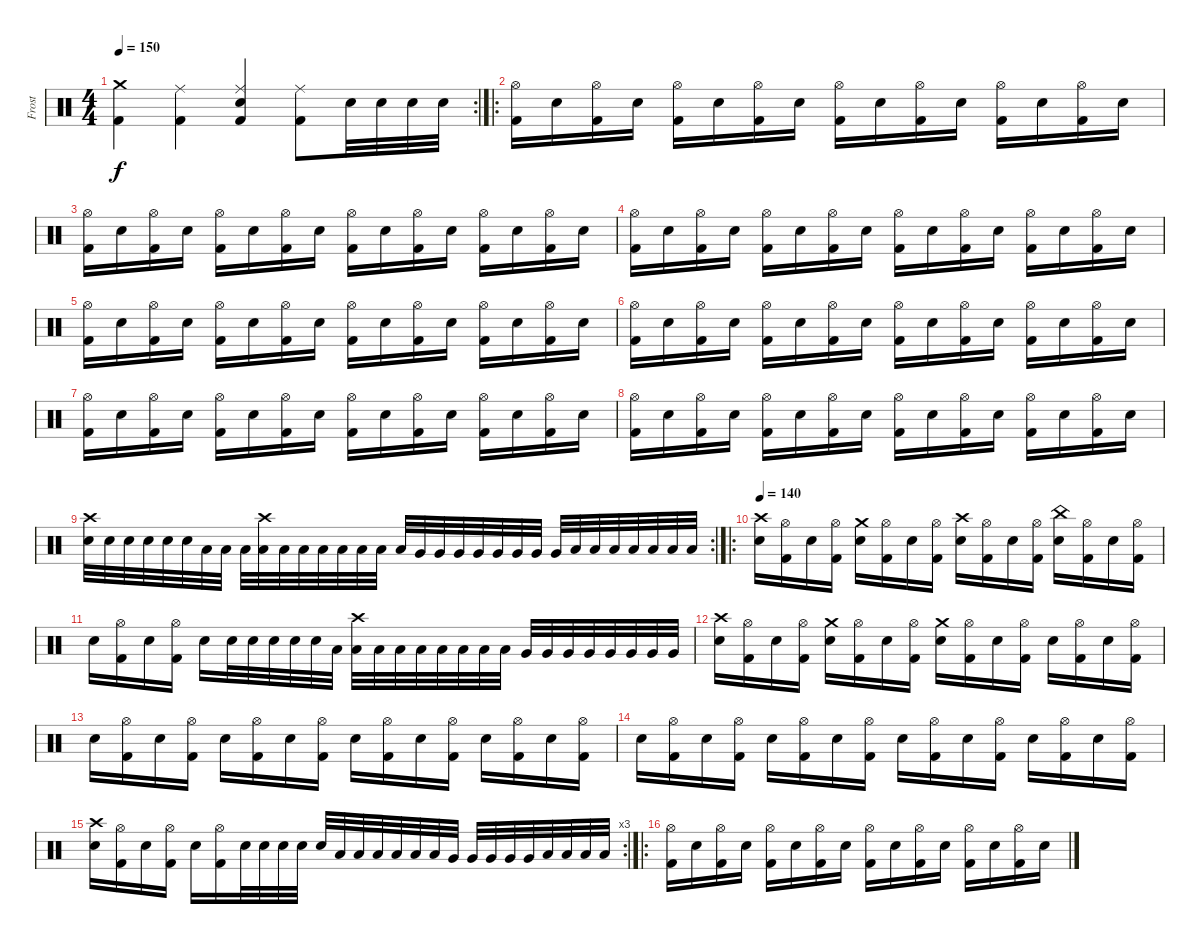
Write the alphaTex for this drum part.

\track ("Frost" "Frost") {instrument percussion}
\staff {score}
\articulation defaults
\rc 2
\ts (4 4)
\tempo 150
\clef neutral
\ks c
("Crash medium (hit)" "Kick (hit) 2").4{dy f} ("Ride (middle)" "Kick (hit) 2").4 ("Ride (middle)" "Snare (hit) 2" "Kick (hit) 2").4 ("Ride (middle)" "Kick (hit) 2").8 "Snare (hit) 2".32 "Snare (hit) 2".32 "Snare (hit) 2".32 "Snare (hit) 2".32 |
\ro
("Hi-Hat (open)" "Kick (hit) 2").16 "Snare (hit) 2".16 ("Hi-Hat (open)" "Kick (hit) 2").16 "Snare (hit) 2".16 ("Hi-Hat (open)" "Kick (hit) 2").16 "Snare (hit) 2".16 ("Hi-Hat (open)" "Kick (hit) 2").16 "Snare (hit) 2".16 ("Hi-Hat (open)" "Kick (hit) 2").16 "Snare (hit) 2".16 ("Hi-Hat (open)" "Kick (hit) 2").16 "Snare (hit) 2".16 ("Hi-Hat (open)" "Kick (hit) 2").16 "Snare (hit) 2".16 ("Hi-Hat (open)" "Kick (hit) 2").16 "Snare (hit) 2".16 |
("Hi-Hat (open)" "Kick (hit) 2").16 "Snare (hit) 2".16 ("Hi-Hat (open)" "Kick (hit) 2").16 "Snare (hit) 2".16 ("Hi-Hat (open)" "Kick (hit) 2").16 "Snare (hit) 2".16 ("Hi-Hat (open)" "Kick (hit) 2").16 "Snare (hit) 2".16 ("Hi-Hat (open)" "Kick (hit) 2").16 "Snare (hit) 2".16 ("Hi-Hat (open)" "Kick (hit) 2").16 "Snare (hit) 2".16 ("Hi-Hat (open)" "Kick (hit) 2").16 "Snare (hit) 2".16 ("Hi-Hat (open)" "Kick (hit) 2").16 "Snare (hit) 2".16 |
("Hi-Hat (open)" "Kick (hit) 2").16 "Snare (hit) 2".16 ("Hi-Hat (open)" "Kick (hit) 2").16 "Snare (hit) 2".16 ("Hi-Hat (open)" "Kick (hit) 2").16 "Snare (hit) 2".16 ("Hi-Hat (open)" "Kick (hit) 2").16 "Snare (hit) 2".16 ("Hi-Hat (open)" "Kick (hit) 2").16 "Snare (hit) 2".16 ("Hi-Hat (open)" "Kick (hit) 2").16 "Snare (hit) 2".16 ("Hi-Hat (open)" "Kick (hit) 2").16 "Snare (hit) 2".16 ("Hi-Hat (open)" "Kick (hit) 2").16 "Snare (hit) 2".16 |
("Hi-Hat (open)" "Kick (hit) 2").16 "Snare (hit) 2".16 ("Hi-Hat (open)" "Kick (hit) 2").16 "Snare (hit) 2".16 ("Hi-Hat (open)" "Kick (hit) 2").16 "Snare (hit) 2".16 ("Hi-Hat (open)" "Kick (hit) 2").16 "Snare (hit) 2".16 ("Hi-Hat (open)" "Kick (hit) 2").16 "Snare (hit) 2".16 ("Hi-Hat (open)" "Kick (hit) 2").16 "Snare (hit) 2".16 ("Hi-Hat (open)" "Kick (hit) 2").16 "Snare (hit) 2".16 ("Hi-Hat (open)" "Kick (hit) 2").16 "Snare (hit) 2".16 |
("Hi-Hat (open)" "Kick (hit) 2").16 "Snare (hit) 2".16 ("Hi-Hat (open)" "Kick (hit) 2").16 "Snare (hit) 2".16 ("Hi-Hat (open)" "Kick (hit) 2").16 "Snare (hit) 2".16 ("Hi-Hat (open)" "Kick (hit) 2").16 "Snare (hit) 2".16 ("Hi-Hat (open)" "Kick (hit) 2").16 "Snare (hit) 2".16 ("Hi-Hat (open)" "Kick (hit) 2").16 "Snare (hit) 2".16 ("Hi-Hat (open)" "Kick (hit) 2").16 "Snare (hit) 2".16 ("Hi-Hat (open)" "Kick (hit) 2").16 "Snare (hit) 2".16 |
("Hi-Hat (open)" "Kick (hit) 2").16 "Snare (hit) 2".16 ("Hi-Hat (open)" "Kick (hit) 2").16 "Snare (hit) 2".16 ("Hi-Hat (open)" "Kick (hit) 2").16 "Snare (hit) 2".16 ("Hi-Hat (open)" "Kick (hit) 2").16 "Snare (hit) 2".16 ("Hi-Hat (open)" "Kick (hit) 2").16 "Snare (hit) 2".16 ("Hi-Hat (open)" "Kick (hit) 2").16 "Snare (hit) 2".16 ("Hi-Hat (open)" "Kick (hit) 2").16 "Snare (hit) 2".16 ("Hi-Hat (open)" "Kick (hit) 2").16 "Snare (hit) 2".16 |
("Hi-Hat (open)" "Kick (hit) 2").16 "Snare (hit) 2".16 ("Hi-Hat (open)" "Kick (hit) 2").16 "Snare (hit) 2".16 ("Hi-Hat (open)" "Kick (hit) 2").16 "Snare (hit) 2".16 ("Hi-Hat (open)" "Kick (hit) 2").16 "Snare (hit) 2".16 ("Hi-Hat (open)" "Kick (hit) 2").16 "Snare (hit) 2".16 ("Hi-Hat (open)" "Kick (hit) 2").16 "Snare (hit) 2".16 ("Hi-Hat (open)" "Kick (hit) 2").16 "Snare (hit) 2".16 ("Hi-Hat (open)" "Kick (hit) 2").16 "Snare (hit) 2".16 |
\rc 2
("Crash high (hit)" "Snare (hit) 2").32 "Snare (hit) 2".32 "Snare (hit) 2".32 "Snare (hit) 2".32 "Snare (hit) 2".32 "Snare (hit) 2".32 "Low Tom (hit)".32 "Low Tom (hit)".32 "Low Tom (hit)".32 ("Crash high (hit)" "Low Tom (hit)").32 "Low Tom (hit)".32 "Low Tom (hit)".32 "Low Tom (hit)".32 "Low Tom (hit)".32 "Low Tom (hit)".32 "Low Tom (hit)".32 "Low Tom (hit)".32 "Very Low Tom (hit)".32 "Very Low Tom (hit)".32 "Very Low Tom (hit)".32 "Very Low Tom (hit)".32 "Very Low Tom (hit)".32 "Very Low Tom (hit)".32 "Very Low Tom (hit)".32 "Very Low Tom (hit)".32 "Low Floor Tom (hit)".32 "Low Floor Tom (hit)".32 "Low Floor Tom (hit)".32 "Low Floor Tom (hit)".32 "Low Floor Tom (hit)".32 "Low Floor Tom (hit)".32 "Low Floor Tom (hit)".32 |
\ro
\tempo 140
("Crash high (hit)" "Snare (hit) 2").16 ("Hi-Hat (open)" "Kick (hit) 2").16 "Snare (hit) 2".16 ("Hi-Hat (open)" "Kick (hit) 2").16 ("Crash medium (hit)" "Snare (hit) 2").16 ("Hi-Hat (open)" "Kick (hit) 2").16 "Snare (hit) 2".16 ("Hi-Hat (open)" "Kick (hit) 2").16 ("Crash high (hit)" "Snare (hit) 2").16 ("Hi-Hat (open)" "Kick (hit) 2").16 "Snare (hit) 2".16 ("Hi-Hat (open)" "Kick (hit) 2").16 ("China (hit)" "Snare (hit) 2").16 ("Hi-Hat (open)" "Kick (hit) 2").16 "Snare (hit) 2".16 ("Hi-Hat (open)" "Kick (hit) 2").16 |
"Snare (hit) 2".16 ("Hi-Hat (open)" "Kick (hit) 2").16 "Snare (hit) 2".16 ("Hi-Hat (open)" "Kick (hit) 2").16 "Snare (hit) 2".16 "Snare (hit) 2".32 "Snare (hit) 2".32 "Snare (hit) 2".32 "Snare (hit) 2".32 "Snare (hit) 2".32 "Low Tom (hit)".32 ("Crash high (hit)" "Low Tom (hit)").32 "Low Tom (hit)".32 "Low Tom (hit)".32 "Low Tom (hit)".32 "Low Tom (hit)".32 "Low Tom (hit)".32 "Low Tom (hit)".32 "Low Tom (hit)".32 "Very Low Tom (hit)".32 "Very Low Tom (hit)".32 "Very Low Tom (hit)".32 "Very Low Tom (hit)".32 "Very Low Tom (hit)".32 "Very Low Tom (hit)".32 "Very Low Tom (hit)".32 "Very Low Tom (hit)".32 |
("Crash high (hit)" "Snare (hit) 2").16 ("Hi-Hat (open)" "Kick (hit) 2").16 "Snare (hit) 2".16 ("Hi-Hat (open)" "Kick (hit) 2").16 ("Crash medium (hit)" "Snare (hit) 2").16 ("Hi-Hat (open)" "Kick (hit) 2").16 "Snare (hit) 2".16 ("Hi-Hat (open)" "Kick (hit) 2").16 ("Crash medium (hit)" "Snare (hit) 2").16 ("Hi-Hat (open)" "Kick (hit) 2").16 "Snare (hit) 2".16 ("Hi-Hat (open)" "Kick (hit) 2").16 "Snare (hit) 2".16 ("Hi-Hat (open)" "Kick (hit) 2").16 "Snare (hit) 2".16 ("Hi-Hat (open)" "Kick (hit) 2").16 |
"Snare (hit) 2".16 ("Hi-Hat (open)" "Kick (hit) 2").16 "Snare (hit) 2".16 ("Hi-Hat (open)" "Kick (hit) 2").16 "Snare (hit) 2".16 ("Hi-Hat (open)" "Kick (hit) 2").16 "Snare (hit) 2".16 ("Hi-Hat (open)" "Kick (hit) 2").16 "Snare (hit) 2".16 ("Hi-Hat (open)" "Kick (hit) 2").16 "Snare (hit) 2".16 ("Hi-Hat (open)" "Kick (hit) 2").16 "Snare (hit) 2".16 ("Hi-Hat (open)" "Kick (hit) 2").16 "Snare (hit) 2".16 ("Hi-Hat (open)" "Kick (hit) 2").16 |
"Snare (hit) 2".16 ("Hi-Hat (open)" "Kick (hit) 2").16 "Snare (hit) 2".16 ("Hi-Hat (open)" "Kick (hit) 2").16 "Snare (hit) 2".16 ("Hi-Hat (open)" "Kick (hit) 2").16 "Snare (hit) 2".16 ("Hi-Hat (open)" "Kick (hit) 2").16 "Snare (hit) 2".16 ("Hi-Hat (open)" "Kick (hit) 2").16 "Snare (hit) 2".16 ("Hi-Hat (open)" "Kick (hit) 2").16 "Snare (hit) 2".16 ("Hi-Hat (open)" "Kick (hit) 2").16 "Snare (hit) 2".16 ("Hi-Hat (open)" "Kick (hit) 2").16 |
\rc 3
("Crash high (hit)" "Snare (hit) 2").16 ("Hi-Hat (open)" "Kick (hit) 2").16 "Snare (hit) 2".16 ("Hi-Hat (open)" "Kick (hit) 2").16 "Snare (hit) 2".16 ("Hi-Hat (open)" "Kick (hit) 2").16 "Snare (hit) 2".32 "Snare (hit) 2".32 "Snare (hit) 2".32 "Snare (hit) 2".32 "Snare (hit) 2".32 "Low Tom (hit)".32 "Low Tom (hit)".32 "Low Tom (hit)".32 "Low Tom (hit)".32 "Low Tom (hit)".32 "Low Tom (hit)".32 "Very Low Tom (hit)".32 "Very Low Tom (hit)".32 "Very Low Tom (hit)".32 "Very Low Tom (hit)".32 "Very Low Tom (hit)".32 "Low Floor Tom (hit)".32 "Low Floor Tom (hit)".32 "Low Floor Tom (hit)".32 "Low Floor Tom (hit)".32 |
\ro
("Hi-Hat (open)" "Kick (hit) 2").16 "Snare (hit) 2".16 ("Hi-Hat (open)" "Kick (hit) 2").16 "Snare (hit) 2".16 ("Hi-Hat (open)" "Kick (hit) 2").16 "Snare (hit) 2".16 ("Hi-Hat (open)" "Kick (hit) 2").16 "Snare (hit) 2".16 ("Hi-Hat (open)" "Kick (hit) 2").16 "Snare (hit) 2".16 ("Hi-Hat (open)" "Kick (hit) 2").16 "Snare (hit) 2".16 ("Hi-Hat (open)" "Kick (hit) 2").16 "Snare (hit) 2".16 ("Hi-Hat (open)" "Kick (hit) 2").16 "Snare (hit) 2".16
